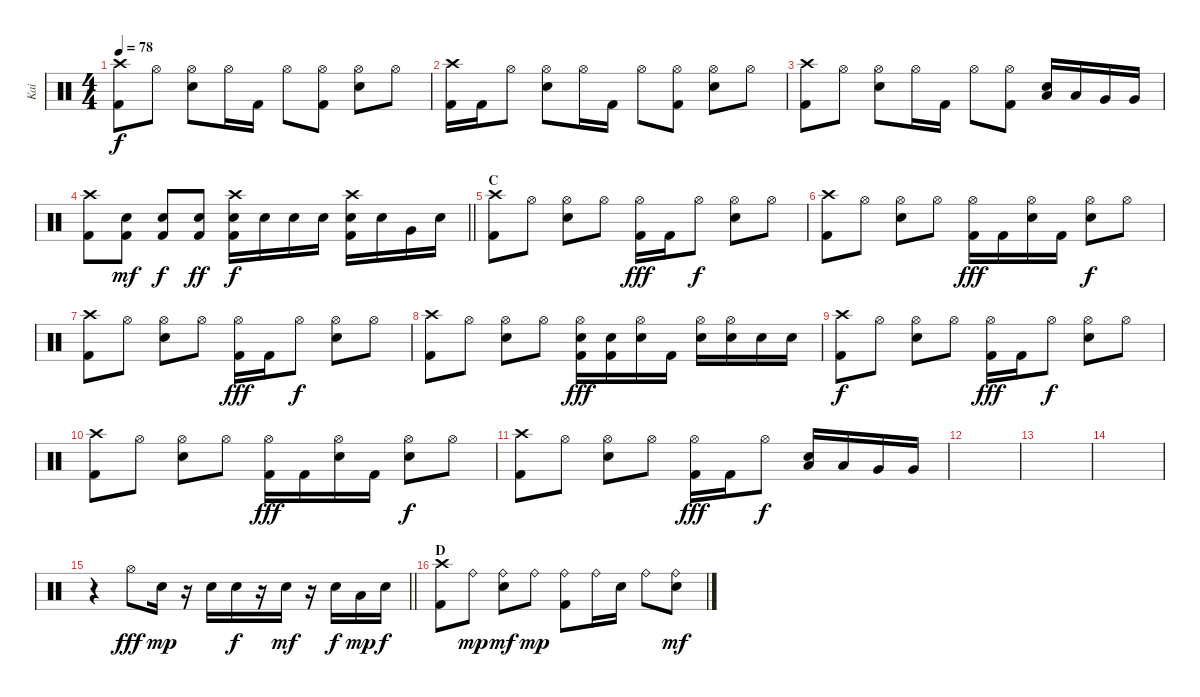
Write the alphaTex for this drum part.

\track ("Kai" "Kai") {instrument percussion}
\staff {score}
\articulation defaults
\ts (4 4)
\tempo 78
\clef neutral
\ks c
("Crash high (hit)" "Kick (hit) 2").8{dy f} "Hi-Hat (open)".8 ("Hi-Hat (open)" "Electric Snare (hit)").8 "Hi-Hat (open)".16 "Kick (hit) 2".16 "Hi-Hat (open)".8 ("Hi-Hat (open)" "Kick (hit) 2").8 ("Hi-Hat (open)" "Electric Snare (hit)").8 "Hi-Hat (open)".8 |
("Crash high (hit)" "Kick (hit) 2").16 "Kick (hit) 2".16 "Hi-Hat (open)".8 ("Hi-Hat (open)" "Electric Snare (hit)").8 "Hi-Hat (open)".16 "Kick (hit) 2".16 "Hi-Hat (open)".8 ("Hi-Hat (open)" "Kick (hit) 2").8 ("Hi-Hat (open)" "Electric Snare (hit)").8 "Hi-Hat (open)".8 |
("Crash high (hit)" "Kick (hit) 2").8 "Hi-Hat (open)".8 ("Hi-Hat (open)" "Electric Snare (hit)").8 "Hi-Hat (open)".16 "Kick (hit) 2".16 "Hi-Hat (open)".8 ("Hi-Hat (open)" "Kick (hit) 2").8 ("Low Tom (hit)" "Electric Snare (hit)").16 "Low Tom (hit)".16 "Very Low Tom (hit)".16 "Very Low Tom (hit)".16 |
\barLineRight lightlight
("Crash high (hit)" "Kick (hit) 2").8 ("Electric Snare (hit)" "Kick (hit) 2").8{dy mf} ("Electric Snare (hit)" "Kick (hit) 2").8{dy f} ("Electric Snare (hit)" "Kick (hit) 2").8{dy ff} ("Crash high (hit)" "Electric Snare (hit)" "Kick (hit) 2").16{dy f} "Electric Snare (hit)".16 "Electric Snare (hit)".16 "Electric Snare (hit)".16 ("Crash high (hit)" "Electric Snare (hit)" "Kick (hit) 2").16 "Electric Snare (hit)".16 "Very Low Tom (hit)".16 "Electric Snare (hit)".16 |
\section ("" "C")
("Crash high (hit)" "Kick (hit) 2").8 "Hi-Hat (open)".8 ("Hi-Hat (open)" "Electric Snare (hit)").8 "Hi-Hat (open)".8 ("Hi-Hat (open)" "Kick (hit) 2").16{dy fff} "Kick (hit) 2".16 "Hi-Hat (open)".8{dy f} ("Hi-Hat (open)" "Electric Snare (hit)").8 "Hi-Hat (open)".8 |
("Crash high (hit)" "Kick (hit) 2").8 "Hi-Hat (open)".8 ("Hi-Hat (open)" "Electric Snare (hit)").8 "Hi-Hat (open)".8 ("Hi-Hat (open)" "Kick (hit) 2").16{dy fff} "Kick (hit) 2".16 ("Hi-Hat (open)" "Electric Snare (hit)").16 "Kick (hit) 2".16 ("Hi-Hat (open)" "Electric Snare (hit)").8{dy f} "Hi-Hat (open)".8 |
("Crash high (hit)" "Kick (hit) 2").8 "Hi-Hat (open)".8 ("Hi-Hat (open)" "Electric Snare (hit)").8 "Hi-Hat (open)".8 ("Hi-Hat (open)" "Kick (hit) 2").16{dy fff} "Kick (hit) 2".16 "Hi-Hat (open)".8{dy f} ("Hi-Hat (open)" "Electric Snare (hit)").8 "Hi-Hat (open)".8 |
("Crash high (hit)" "Kick (hit) 2").8 "Hi-Hat (open)".8 ("Hi-Hat (open)" "Electric Snare (hit)").8 "Hi-Hat (open)".8 ("Hi-Hat (open)" "Electric Snare (hit)" "Kick (hit) 2").16{dy fff} ("Electric Snare (hit)" "Kick (hit) 2").16 ("Hi-Hat (open)" "Electric Snare (hit)").16 "Kick (hit) 2".16 ("Hi-Hat (open)" "Electric Snare (hit)").16 ("Hi-Hat (open)" "Electric Snare (hit)").16 "Electric Snare (hit)".16 "Electric Snare (hit)".16 |
("Crash high (hit)" "Kick (hit) 2").8{dy f} "Hi-Hat (open)".8 ("Hi-Hat (open)" "Electric Snare (hit)").8 "Hi-Hat (open)".8 ("Hi-Hat (open)" "Kick (hit) 2").16{dy fff} "Kick (hit) 2".16 "Hi-Hat (open)".8{dy f} ("Hi-Hat (open)" "Electric Snare (hit)").8 "Hi-Hat (open)".8 |
("Crash high (hit)" "Kick (hit) 2").8 "Hi-Hat (open)".8 ("Hi-Hat (open)" "Electric Snare (hit)").8 "Hi-Hat (open)".8 ("Hi-Hat (open)" "Kick (hit) 2").16{dy fff} "Kick (hit) 2".16 ("Hi-Hat (open)" "Electric Snare (hit)").16 "Kick (hit) 2".16 ("Hi-Hat (open)" "Electric Snare (hit)").8{dy f} "Hi-Hat (open)".8 |
("Crash high (hit)" "Kick (hit) 2").8 "Hi-Hat (open)".8 ("Hi-Hat (open)" "Electric Snare (hit)").8 "Hi-Hat (open)".8 ("Hi-Hat (open)" "Kick (hit) 2").16{dy fff} "Kick (hit) 2".16 "Hi-Hat (open)".8{dy f} ("Low Tom (hit)" "Electric Snare (hit)").16 "Low Tom (hit)".16 "Very Low Tom (hit)".16 "Very Low Tom (hit)".16 |
|
|
|
\barLineRight lightlight
r.4 "Hi-Hat (open)".8{dy fff} "Electric Snare (hit)".16{dy mp} r.16 "Electric Snare (hit)".16 "Electric Snare (hit)".16{dy f} r.16 "Electric Snare (hit)".16{dy mf} r.16 "Electric Snare (hit)".16{dy f} "Low Tom (hit)".16{dy mp} "Electric Snare (hit)".16{dy f} |
\section ("" "D")
("Crash high (hit)" "Kick (hit) 2").8 "Ride (bell)".8{dy mp} ("Ride (bell)" "Electric Snare (hit)").8{dy mf} "Ride (bell)".8{dy mp} ("Ride (bell)" "Kick (hit) 2").8 "Ride (bell)".16 "Electric Snare (hit)".16 "Ride (bell)".8 ("Ride (bell)" "Electric Snare (hit)").8{dy mf}
